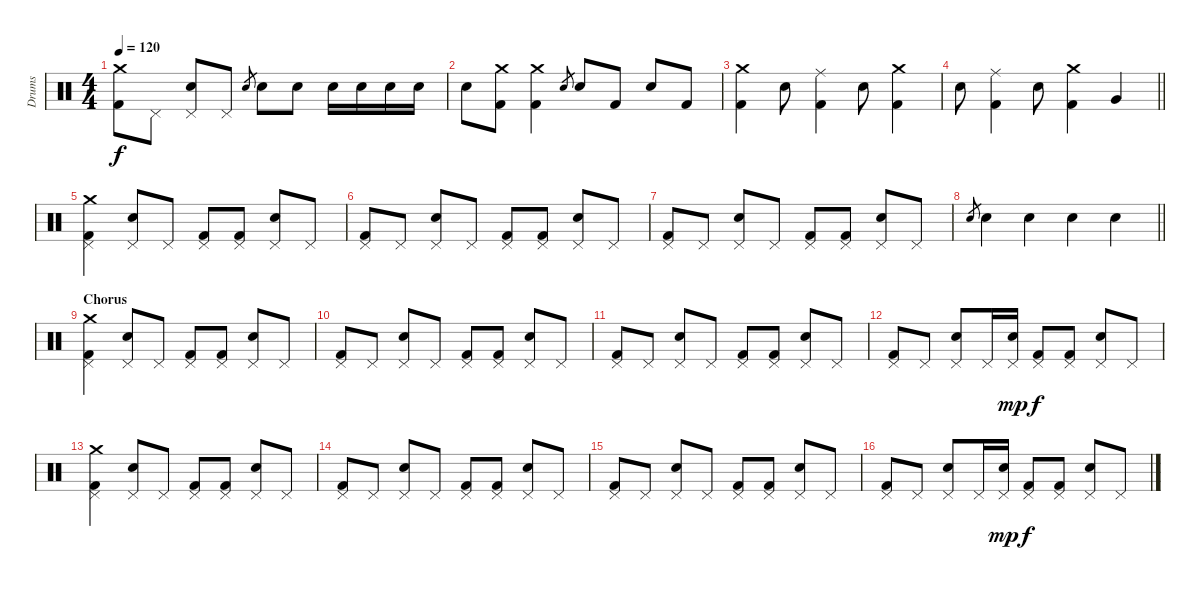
\track ("Drums" "Drums") {instrument percussion}
\staff {score}
\articulation defaults
\ts (4 4)
\tempo 120
\clef neutral
\ks c
("Crash medium (hit)" "Kick (hit) 2").8{dy f} "Pedal Hi-Hat (hit)".8 ("Pedal Hi-Hat (hit)" "Electric Snare (hit)").8 "Pedal Hi-Hat (hit)".8 "Electric Snare (hit)".8{gr} "Electric Snare (hit)".8 "Electric Snare (hit)".8 "Electric Snare (hit)".16 "Electric Snare (hit)".16 "Electric Snare (hit)".16 "Electric Snare (hit)".16 |
"Electric Snare (hit)".8 ("Crash medium (hit)" "Kick (hit) 2").8 ("Crash medium (hit)" "Kick (hit) 2").4 "Electric Snare (hit)".8{gr} "Electric Snare (hit)".8 "Kick (hit) 2".8 "Electric Snare (hit)".8 "Kick (hit) 2".8 |
("Crash medium (hit)" "Kick (hit) 2").4 "Electric Snare (hit)".8 ("Ride (middle)" "Kick (hit) 2").4 "Electric Snare (hit)".8 ("Crash medium (hit)" "Kick (hit) 2").4 |
\barLineRight lightlight "Electric Snare (hit)".8
("Ride (middle)" "Kick (hit) 2").4 "Electric Snare (hit)".8 ("Crash medium (hit)" "Kick (hit) 2").4 "Very Low Tom (hit)".4 |
("Crash medium (hit)" "Pedal Hi-Hat (hit)" "Kick (hit) 2").4 ("Pedal Hi-Hat (hit)" "Electric Snare (hit)").8 "Pedal Hi-Hat (hit)".8 ("Pedal Hi-Hat (hit)" "Kick (hit) 2").8 ("Pedal Hi-Hat (hit)" "Kick (hit) 2").8 ("Pedal Hi-Hat (hit)" "Electric Snare (hit)").8 "Pedal Hi-Hat (hit)".8 |
("Pedal Hi-Hat (hit)" "Kick (hit) 2").8 "Pedal Hi-Hat (hit)".8 ("Pedal Hi-Hat (hit)" "Electric Snare (hit)").8 "Pedal Hi-Hat (hit)".8 ("Pedal Hi-Hat (hit)" "Kick (hit) 2").8 ("Pedal Hi-Hat (hit)" "Kick (hit) 2").8 ("Pedal Hi-Hat (hit)" "Electric Snare (hit)").8 "Pedal Hi-Hat (hit)".8 |
("Pedal Hi-Hat (hit)" "Kick (hit) 2").8 "Pedal Hi-Hat (hit)".8 ("Pedal Hi-Hat (hit)" "Electric Snare (hit)").8 "Pedal Hi-Hat (hit)".8 ("Pedal Hi-Hat (hit)" "Kick (hit) 2").8 ("Pedal Hi-Hat (hit)" "Kick (hit) 2").8 ("Pedal Hi-Hat (hit)" "Electric Snare (hit)").8 "Pedal Hi-Hat (hit)".8 |
\barLineRight lightlight "Electric Snare (hit)".8{gr} "Electric Snare (hit)".4 "Electric Snare (hit)".4 "Electric Snare (hit)".4 "Electric Snare (hit)".4
|
\section ("" "Chorus")
("Crash medium (hit)" "Pedal Hi-Hat (hit)" "Kick (hit) 2").4 ("Pedal Hi-Hat (hit)" "Electric Snare (hit)").8 "Pedal Hi-Hat (hit)".8 ("Pedal Hi-Hat (hit)" "Kick (hit) 2").8 ("Pedal Hi-Hat (hit)" "Kick (hit) 2").8 ("Pedal Hi-Hat (hit)" "Electric Snare (hit)").8 "Pedal Hi-Hat (hit)".8 |
("Pedal Hi-Hat (hit)" "Kick (hit) 2").8 "Pedal Hi-Hat (hit)".8 ("Pedal Hi-Hat (hit)" "Electric Snare (hit)").8 "Pedal Hi-Hat (hit)".8 ("Pedal Hi-Hat (hit)" "Kick (hit) 2").8 ("Pedal Hi-Hat (hit)" "Kick (hit) 2").8 ("Pedal Hi-Hat (hit)" "Electric Snare (hit)").8 "Pedal Hi-Hat (hit)".8 |
("Pedal Hi-Hat (hit)" "Kick (hit) 2").8 "Pedal Hi-Hat (hit)".8 ("Pedal Hi-Hat (hit)" "Electric Snare (hit)").8 "Pedal Hi-Hat (hit)".8 ("Pedal Hi-Hat (hit)" "Kick (hit) 2").8 ("Pedal Hi-Hat (hit)" "Kick (hit) 2").8 ("Pedal Hi-Hat (hit)" "Electric Snare (hit)").8 "Pedal Hi-Hat (hit)".8 |
("Pedal Hi-Hat (hit)" "Kick (hit) 2").8 "Pedal Hi-Hat (hit)".8 ("Pedal Hi-Hat (hit)" "Electric Snare (hit)").8 "Pedal Hi-Hat (hit)".16 ("Pedal Hi-Hat (hit)" "Electric Snare (hit)").16{dy mp} ("Pedal Hi-Hat (hit)" "Kick (hit) 2").8{dy f} ("Pedal Hi-Hat (hit)" "Kick (hit) 2").8 ("Pedal Hi-Hat (hit)" "Electric Snare (hit)").8 "Pedal Hi-Hat (hit)".8 |
("Crash medium (hit)" "Pedal Hi-Hat (hit)" "Kick (hit) 2").4 ("Pedal Hi-Hat (hit)" "Electric Snare (hit)").8 "Pedal Hi-Hat (hit)".8 ("Pedal Hi-Hat (hit)" "Kick (hit) 2").8 ("Pedal Hi-Hat (hit)" "Kick (hit) 2").8 ("Pedal Hi-Hat (hit)" "Electric Snare (hit)").8 "Pedal Hi-Hat (hit)".8 |
("Pedal Hi-Hat (hit)" "Kick (hit) 2").8 "Pedal Hi-Hat (hit)".8 ("Pedal Hi-Hat (hit)" "Electric Snare (hit)").8 "Pedal Hi-Hat (hit)".8 ("Pedal Hi-Hat (hit)" "Kick (hit) 2").8 ("Pedal Hi-Hat (hit)" "Kick (hit) 2").8 ("Pedal Hi-Hat (hit)" "Electric Snare (hit)").8 "Pedal Hi-Hat (hit)".8 |
("Pedal Hi-Hat (hit)" "Kick (hit) 2").8 "Pedal Hi-Hat (hit)".8 ("Pedal Hi-Hat (hit)" "Electric Snare (hit)").8 "Pedal Hi-Hat (hit)".8 ("Pedal Hi-Hat (hit)" "Kick (hit) 2").8 ("Pedal Hi-Hat (hit)" "Kick (hit) 2").8 ("Pedal Hi-Hat (hit)" "Electric Snare (hit)").8 "Pedal Hi-Hat (hit)".8 |
("Pedal Hi-Hat (hit)" "Kick (hit) 2").8 "Pedal Hi-Hat (hit)".8 ("Pedal Hi-Hat (hit)" "Electric Snare (hit)").8 "Pedal Hi-Hat (hit)".16 ("Pedal Hi-Hat (hit)" "Electric Snare (hit)").16{dy mp} ("Pedal Hi-Hat (hit)" "Kick (hit) 2").8{dy f} ("Pedal Hi-Hat (hit)" "Kick (hit) 2").8 ("Pedal Hi-Hat (hit)" "Electric Snare (hit)").8 "Pedal Hi-Hat (hit)".8
